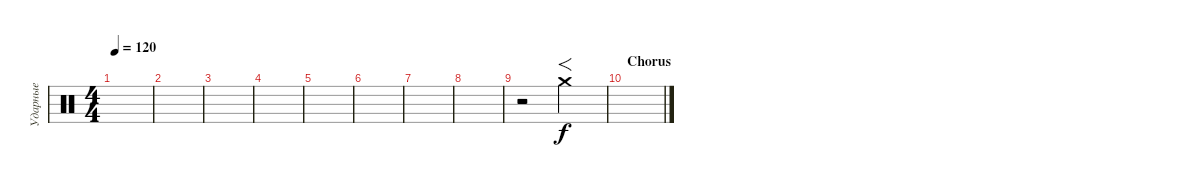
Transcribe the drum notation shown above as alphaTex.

\track ("Ударные" "Ударные") {instrument percussion}
\staff {score}
\articulation defaults
\ts (4 4)
\tempo 120
\clef neutral
\ks c
|
|
|
|
|
|
|
|
r.2 "Crash medium (hit)".2{f} |
\section ("" "Chorus")
